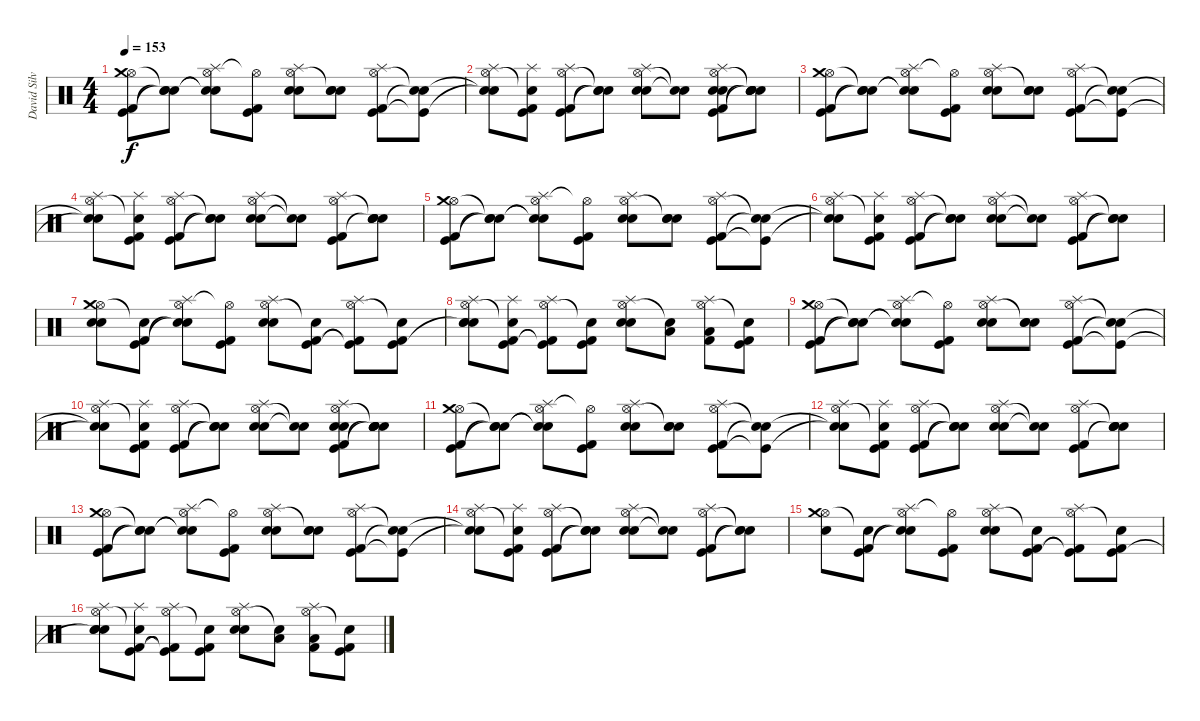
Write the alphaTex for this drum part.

\track ("David Silveria" "David Silv") {instrument percussion}
\staff {score}
\articulation defaults
\ts (4 4)
\tempo 153
\clef neutral
\ks c
("Hi-Hat (open)" "Kick (hit) 2" "Kick (hit)" "Crash medium (hit)").8{dy f} ("Snare (hit)"{t} "Snare (hit)"{t} "Snare (hit)"{t}).8 ("Hi-Hat (open)" "Snare (hit)"{t} "Snare (hit)"{t} "Splash (hit)").8 ("Hi-Hat (open)"{t} "Kick (hit)" "Kick (hit) 2").8 ("Hi-Hat (open)" "Electric Snare (hit)" "Splash (hit)" "Snare (hit) 2").8 ("Snare (hit)"{t} "Electric Snare (hit)" "Snare (hit) 2").8 ("Hi-Hat (open)" "Kick (hit)" "Kick (hit) 2" "Splash (hit)").8 ("Snare (hit)"{t} "Kick (hit)"{t} "Snare (hit)"{t}).8 |
("Hi-Hat (open)" "Snare (hit)"{t} "Snare (hit)"{t} "Splash (hit)").8 ("Snare (hit)"{t} "Kick (hit) 2" "Kick (hit)" "Splash (hit)").8 ("Hi-Hat (open)" "Kick (hit)" "Kick (hit) 2" "Splash (hit)").8 ("Snare (hit)"{t} "Snare (hit)"{t} "Snare (hit)"{t}).8 ("Hi-Hat (open)" "Electric Snare (hit)" "Splash (hit)" "Snare (hit) 2").8 ("Snare (hit)"{t} "Snare (hit)"{t}).8 ("Hi-Hat (open)" "Kick (hit)" "Kick (hit) 2" "Splash (hit)" "Electric Snare (hit)" "Snare (hit) 2").8 ("Snare (hit)"{t} "Snare (hit)"{t} "Snare (hit)"{t} "Electric Snare (hit)" "Snare (hit) 2").8 |
("Hi-Hat (open)" "Kick (hit) 2" "Kick (hit)" "Crash medium (hit)").8 ("Snare (hit)"{t} "Snare (hit)"{t} "Snare (hit)"{t}).8 ("Hi-Hat (open)" "Snare (hit)"{t} "Snare (hit)"{t} "Splash (hit)").8 ("Hi-Hat (open)"{t} "Kick (hit)" "Kick (hit) 2").8 ("Hi-Hat (open)" "Electric Snare (hit)" "Splash (hit)" "Snare (hit) 2").8 ("Snare (hit)"{t} "Electric Snare (hit)" "Snare (hit) 2").8 ("Hi-Hat (open)" "Kick (hit)" "Kick (hit) 2" "Splash (hit)").8 ("Snare (hit)"{t} "Kick (hit)"{t} "Snare (hit)"{t}).8 |
("Hi-Hat (open)" "Snare (hit)"{t} "Snare (hit)"{t} "Splash (hit)").8 ("Snare (hit)"{t} "Kick (hit) 2" "Kick (hit)" "Splash (hit)").8 ("Hi-Hat (open)" "Kick (hit)" "Kick (hit) 2" "Splash (hit)").8 ("Snare (hit)"{t} "Snare (hit)"{t} "Snare (hit)"{t}).8 ("Hi-Hat (open)" "Electric Snare (hit)" "Splash (hit)" "Snare (hit) 2").8 ("Snare (hit)"{t} "Snare (hit)"{t}).8 ("Hi-Hat (open)" "Kick (hit)" "Kick (hit) 2" "Splash (hit)").8 ("Snare (hit)"{t} "Electric Snare (hit)" "Snare (hit)"{t} "Snare (hit) 2").8 |
("Hi-Hat (open)" "Kick (hit) 2" "Kick (hit)" "Crash medium (hit)").8 ("Snare (hit)"{t} "Snare (hit)"{t} "Snare (hit)"{t}).8 ("Hi-Hat (open)" "Snare (hit)"{t} "Snare (hit)"{t} "Splash (hit)").8 ("Hi-Hat (open)"{t} "Kick (hit)" "Kick (hit) 2").8 ("Hi-Hat (open)" "Electric Snare (hit)" "Splash (hit)" "Snare (hit) 2").8 ("Snare (hit)"{t} "Electric Snare (hit)" "Snare (hit) 2").8 ("Hi-Hat (open)" "Kick (hit)" "Kick (hit) 2" "Splash (hit)").8 ("Snare (hit)"{t} "Kick (hit)"{t} "Snare (hit)"{t}).8 |
("Hi-Hat (open)" "Snare (hit)"{t} "Snare (hit)"{t} "Splash (hit)").8 ("Snare (hit)"{t} "Kick (hit) 2" "Kick (hit)" "Splash (hit)").8 ("Hi-Hat (open)" "Kick (hit)" "Kick (hit) 2" "Splash (hit)").8 ("Snare (hit)"{t} "Snare (hit)"{t} "Snare (hit)"{t}).8 ("Hi-Hat (open)" "Electric Snare (hit)" "Splash (hit)" "Snare (hit) 2").8 ("Snare (hit)"{t} "Snare (hit)"{t}).8 ("Hi-Hat (open)" "Kick (hit)" "Kick (hit) 2" "Splash (hit)").8 ("Snare (hit)"{t} "Snare (hit)"{t} "Snare (hit)"{t}).8 |
("Hi-Hat (open)" "Electric Snare (hit)" "Crash medium (hit)" "Snare (hit) 2").8 ("Snare (hit)"{t} "Kick (hit)" "Kick (hit) 2").8 ("Hi-Hat (open)" "Snare (hit)"{t} "Snare (hit)"{t} "Splash (hit)").8 ("Hi-Hat (open)"{t} "Kick (hit)" "Kick (hit) 2").8 ("Hi-Hat (open)" "Electric Snare (hit)" "Splash (hit)" "Snare (hit) 2").8 ("Snare (hit)"{t} "Kick (hit) 2" "Kick (hit)").8 ("Hi-Hat (open)" "Kick (hit)"{t} "Kick (hit) 2"{t} "Splash (hit)").8 ("Snare (hit)"{t} "Kick (hit) 2" "Kick (hit)").8 |
("Hi-Hat (open)" "Electric Snare (hit)" "Snare (hit)"{t} "Splash (hit)" "Snare (hit) 2").8 ("Snare (hit)"{t} "Kick (hit) 2" "Kick (hit)" "Splash (hit)").8 ("Hi-Hat (open)" "Kick (hit)"{t} "Kick (hit) 2"{t} "Splash (hit)").8 ("Snare (hit)"{t} "Kick (hit) 2" "Kick (hit)").8 ("Hi-Hat (open)" "Electric Snare (hit)" "Splash (hit)" "Snare (hit) 2").8 ("Snare (hit)"{t} "Low Tom (hit)").8 ("Hi-Hat (open)" "Low Floor Tom (hit)" "Kick (hit) 2" "Splash (hit)").8 ("Snare (hit)"{t} "Kick (hit) 2" "Kick (hit)").8 |
("Hi-Hat (open)" "Kick (hit) 2" "Kick (hit)" "Crash medium (hit)").8 ("Snare (hit)"{t} "Snare (hit)"{t} "Snare (hit)"{t}).8 ("Hi-Hat (open)" "Snare (hit)"{t} "Snare (hit)"{t} "Splash (hit)").8 ("Hi-Hat (open)"{t} "Kick (hit)" "Kick (hit) 2").8 ("Hi-Hat (open)" "Electric Snare (hit)" "Splash (hit)" "Snare (hit) 2").8 ("Snare (hit)"{t} "Electric Snare (hit)" "Snare (hit) 2").8 ("Hi-Hat (open)" "Kick (hit)" "Kick (hit) 2" "Splash (hit)").8 ("Snare (hit)"{t} "Kick (hit)"{t} "Snare (hit)"{t}).8 |
("Hi-Hat (open)" "Snare (hit)"{t} "Snare (hit)"{t} "Splash (hit)").8 ("Snare (hit)"{t} "Kick (hit) 2" "Kick (hit)" "Splash (hit)").8 ("Hi-Hat (open)" "Kick (hit)" "Kick (hit) 2" "Splash (hit)").8 ("Snare (hit)"{t} "Snare (hit)"{t} "Snare (hit)"{t}).8 ("Hi-Hat (open)" "Electric Snare (hit)" "Splash (hit)" "Snare (hit) 2").8 ("Snare (hit)"{t} "Snare (hit)"{t}).8 ("Hi-Hat (open)" "Kick (hit)" "Kick (hit) 2" "Splash (hit)" "Electric Snare (hit)" "Snare (hit) 2").8 ("Snare (hit)"{t} "Snare (hit)"{t} "Snare (hit)"{t} "Electric Snare (hit)" "Snare (hit) 2").8 |
("Hi-Hat (open)" "Kick (hit) 2" "Kick (hit)" "Crash medium (hit)").8 ("Snare (hit)"{t} "Snare (hit)"{t} "Snare (hit)"{t}).8 ("Hi-Hat (open)" "Snare (hit)"{t} "Snare (hit)"{t} "Splash (hit)").8 ("Hi-Hat (open)"{t} "Kick (hit)" "Kick (hit) 2").8 ("Hi-Hat (open)" "Electric Snare (hit)" "Splash (hit)" "Snare (hit) 2").8 ("Snare (hit)"{t} "Electric Snare (hit)" "Snare (hit) 2").8 ("Hi-Hat (open)" "Kick (hit)" "Kick (hit) 2" "Splash (hit)").8 ("Snare (hit)"{t} "Kick (hit)"{t} "Snare (hit)"{t}).8 |
("Hi-Hat (open)" "Snare (hit)"{t} "Snare (hit)"{t} "Splash (hit)").8 ("Snare (hit)"{t} "Kick (hit) 2" "Kick (hit)" "Splash (hit)").8 ("Hi-Hat (open)" "Kick (hit)" "Kick (hit) 2" "Splash (hit)").8 ("Snare (hit)"{t} "Snare (hit)"{t} "Snare (hit)"{t}).8 ("Hi-Hat (open)" "Electric Snare (hit)" "Splash (hit)" "Snare (hit) 2").8 ("Snare (hit)"{t} "Snare (hit)"{t}).8 ("Hi-Hat (open)" "Kick (hit)" "Kick (hit) 2" "Splash (hit)").8 ("Snare (hit)"{t} "Electric Snare (hit)" "Snare (hit)"{t} "Snare (hit) 2").8 |
("Hi-Hat (open)" "Kick (hit) 2" "Kick (hit)" "Crash medium (hit)").8 ("Snare (hit)"{t} "Snare (hit)"{t} "Snare (hit)"{t}).8 ("Hi-Hat (open)" "Snare (hit)"{t} "Snare (hit)"{t} "Splash (hit)").8 ("Hi-Hat (open)"{t} "Kick (hit)" "Kick (hit) 2").8 ("Hi-Hat (open)" "Electric Snare (hit)" "Splash (hit)" "Snare (hit) 2").8 ("Snare (hit)"{t} "Electric Snare (hit)" "Snare (hit) 2").8 ("Hi-Hat (open)" "Kick (hit)" "Kick (hit) 2" "Splash (hit)").8 ("Snare (hit)"{t} "Kick (hit)"{t} "Snare (hit)"{t}).8 |
("Hi-Hat (open)" "Snare (hit)"{t} "Snare (hit)"{t} "Splash (hit)").8 ("Snare (hit)"{t} "Kick (hit) 2" "Kick (hit)" "Splash (hit)").8 ("Hi-Hat (open)" "Kick (hit)" "Kick (hit) 2" "Splash (hit)").8 ("Snare (hit)"{t} "Snare (hit)"{t} "Snare (hit)"{t}).8 ("Hi-Hat (open)" "Electric Snare (hit)" "Splash (hit)" "Snare (hit) 2").8 ("Snare (hit)"{t} "Snare (hit)"{t}).8 ("Hi-Hat (open)" "Kick (hit)" "Kick (hit) 2" "Splash (hit)").8 ("Snare (hit)"{t} "Snare (hit)"{t} "Snare (hit)"{t}).8 |
("Hi-Hat (open)" "Electric Snare (hit)" "Crash medium (hit)").8 ("Snare (hit)"{t} "Kick (hit)" "Kick (hit) 2").8 ("Hi-Hat (open)" "Snare (hit)"{t} "Snare (hit)"{t} "Splash (hit)").8 ("Hi-Hat (open)"{t} "Kick (hit)" "Kick (hit) 2").8 ("Hi-Hat (open)" "Electric Snare (hit)" "Splash (hit)" "Snare (hit) 2").8 ("Snare (hit)"{t} "Kick (hit) 2" "Kick (hit)").8 ("Hi-Hat (open)" "Kick (hit)"{t} "Kick (hit) 2"{t} "Splash (hit)").8 ("Snare (hit)"{t} "Kick (hit) 2" "Kick (hit)").8 |
("Hi-Hat (open)" "Electric Snare (hit)" "Snare (hit)"{t} "Splash (hit)" "Snare (hit) 2").8 ("Snare (hit)"{t} "Kick (hit) 2" "Kick (hit)" "Splash (hit)").8 ("Hi-Hat (open)" "Kick (hit)"{t} "Kick (hit) 2"{t} "Splash (hit)").8 ("Snare (hit)"{t} "Kick (hit) 2" "Kick (hit)").8 ("Hi-Hat (open)" "Electric Snare (hit)" "Splash (hit)" "Snare (hit) 2").8 ("Snare (hit)"{t} "Low Tom (hit)").8 ("Hi-Hat (open)" "Low Floor Tom (hit)" "Kick (hit) 2" "Splash (hit)").8 ("Snare (hit)"{t} "Kick (hit) 2" "Kick (hit)").8
